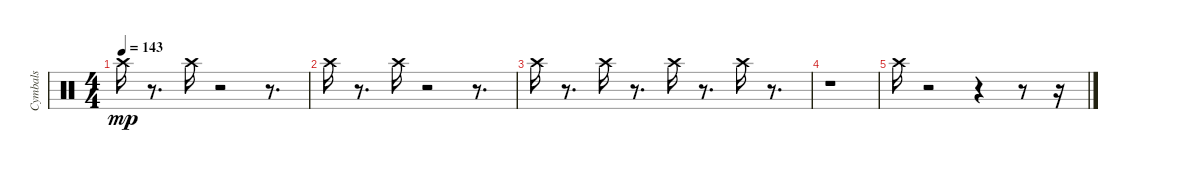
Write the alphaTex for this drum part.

\track ("Cymbals  " "Cymbals  ") {instrument percussion}
\staff {score}
\articulation defaults
\ts (4 4)
\tempo 143
\clef neutral
\ks c "Crash high (hit)".16{dy mp}
r.8{d} "Crash high (hit)".16 r.2 r.8{d} |
"Crash high (hit)".16 r.8{d} "Crash high (hit)".16 r.2 r.8{d} |
"Crash high (hit)".16 r.8{d} "Crash high (hit)".16 r.8{d} "Crash high (hit)".16 r.8{d} "Crash high (hit)".16 r.8{d} |
r.1 |
"Crash high (hit)".16 r.2 r.4 r.8 r.16
